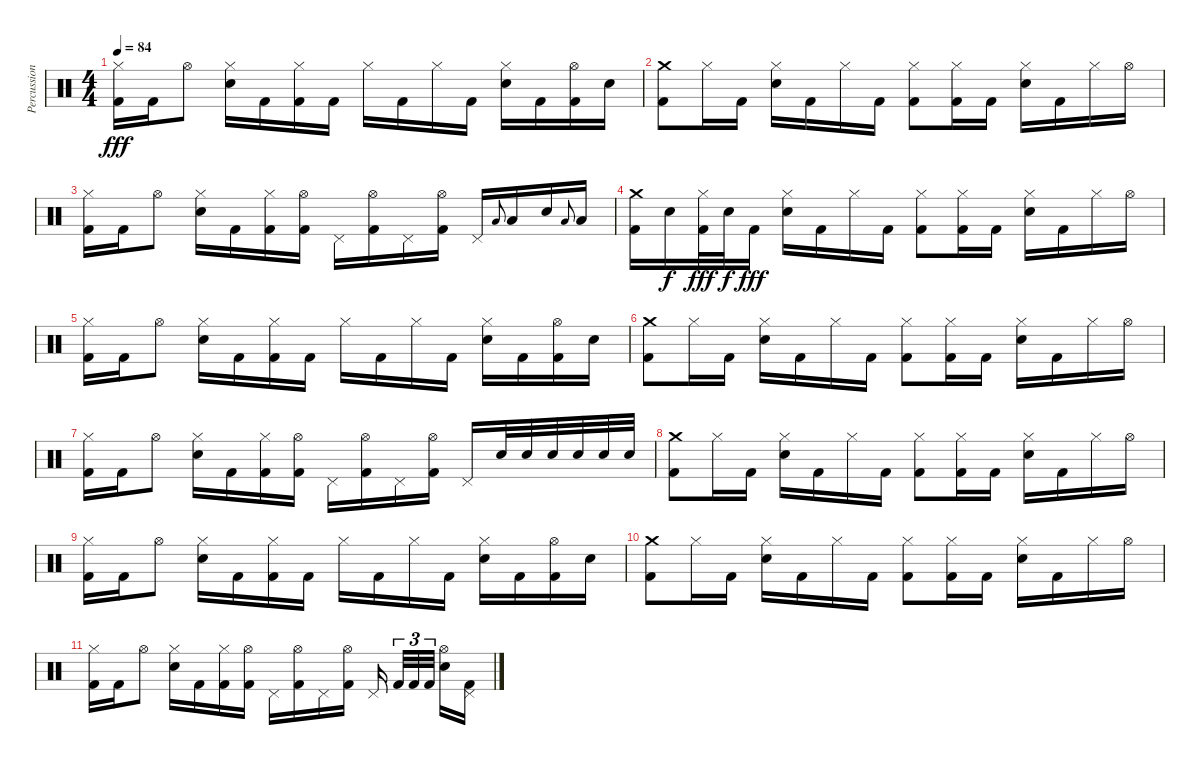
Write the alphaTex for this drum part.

\track ("Percussion" "Percussion") {instrument percussion}
\staff {score}
\articulation defaults
\ts (4 4)
\tempo 84
\clef neutral
\ks c
("Hi-Hat (closed)" "Kick (hit) 2").16{dy fff} "Kick (hit) 2".16 "Hi-Hat (open)".8 ("Hi-Hat (closed)" "Electric Snare (hit)").16 "Kick (hit) 2".16 ("Hi-Hat (closed)" "Kick (hit) 2").16 "Kick (hit) 2".16 "Hi-Hat (closed)".16 "Kick (hit) 2".16 "Hi-Hat (closed)".16 "Kick (hit) 2".16 ("Hi-Hat (closed)" "Electric Snare (hit)").16 "Kick (hit) 2".16 ("Hi-Hat (open)" "Kick (hit) 2").16 "Electric Snare (hit)".16 |
("Crash medium (hit)" "Kick (hit) 2").8 "Hi-Hat (closed)".16 "Kick (hit) 2".16 ("Hi-Hat (closed)" "Electric Snare (hit)").16 "Kick (hit) 2".16 "Hi-Hat (closed)".16 "Kick (hit) 2".16 ("Hi-Hat (closed)" "Kick (hit) 2").8 ("Hi-Hat (closed)" "Kick (hit) 2").16 "Kick (hit) 2".16 ("Hi-Hat (closed)" "Electric Snare (hit)").16 "Kick (hit) 2".16 "Hi-Hat (closed)".16 "Hi-Hat (open)".16 |
("Hi-Hat (closed)" "Kick (hit) 2").16 "Kick (hit) 2".16 "Hi-Hat (open)".8 ("Hi-Hat (closed)" "Electric Snare (hit)").16 "Kick (hit) 2".16 ("Hi-Hat (closed)" "Kick (hit) 2").16 ("Hi-Hat (open)" "Kick (hit) 2").16 "Pedal Hi-Hat (hit)".16 ("Hi-Hat (open)" "Kick (hit) 2").16 "Pedal Hi-Hat (hit)".16 ("Hi-Hat (open)" "Kick (hit) 2").16 "Pedal Hi-Hat (hit)".16 "Low Tom (hit)".8{gr onbeat} "Low Tom (hit)".16 "Electric Snare (hit)".16 "Low Tom (hit)".8{gr onbeat} "Low Tom (hit)".16 |
("Crash medium (hit)" "Kick (hit) 2").16 "Electric Snare (hit)".16{dy f} ("Hi-Hat (closed)" "Kick (hit) 2").32{dy fff} "Electric Snare (hit)".32{dy f} "Kick (hit) 2".16{dy fff} ("Hi-Hat (closed)" "Electric Snare (hit)").16 "Kick (hit) 2".16 "Hi-Hat (closed)".16 "Kick (hit) 2".16 ("Hi-Hat (closed)" "Kick (hit) 2").8 ("Hi-Hat (closed)" "Kick (hit) 2").16 "Kick (hit) 2".16 ("Hi-Hat (closed)" "Electric Snare (hit)").16 "Kick (hit) 2".16 "Hi-Hat (closed)".16 "Hi-Hat (open)".16 |
("Hi-Hat (closed)" "Kick (hit) 2").16 "Kick (hit) 2".16 "Hi-Hat (open)".8 ("Hi-Hat (closed)" "Electric Snare (hit)").16 "Kick (hit) 2".16 ("Hi-Hat (closed)" "Kick (hit) 2").16 "Kick (hit) 2".16 "Hi-Hat (closed)".16 "Kick (hit) 2".16 "Hi-Hat (closed)".16 "Kick (hit) 2".16 ("Hi-Hat (closed)" "Electric Snare (hit)").16 "Kick (hit) 2".16 ("Hi-Hat (open)" "Kick (hit) 2").16 "Electric Snare (hit)".16 |
("Crash medium (hit)" "Kick (hit) 2").8 "Hi-Hat (closed)".16 "Kick (hit) 2".16 ("Hi-Hat (closed)" "Electric Snare (hit)").16 "Kick (hit) 2".16 "Hi-Hat (closed)".16 "Kick (hit) 2".16 ("Hi-Hat (closed)" "Kick (hit) 2").8 ("Hi-Hat (closed)" "Kick (hit) 2").16 "Kick (hit) 2".16 ("Hi-Hat (closed)" "Electric Snare (hit)").16 "Kick (hit) 2".16 "Hi-Hat (closed)".16 "Hi-Hat (open)".16 |
("Hi-Hat (closed)" "Kick (hit) 2").16 "Kick (hit) 2".16 "Hi-Hat (open)".8 ("Hi-Hat (closed)" "Electric Snare (hit)").16 "Kick (hit) 2".16 ("Hi-Hat (closed)" "Kick (hit) 2").16 ("Hi-Hat (open)" "Kick (hit) 2").16 "Pedal Hi-Hat (hit)".16 ("Hi-Hat (open)" "Kick (hit) 2").16 "Pedal Hi-Hat (hit)".16 ("Hi-Hat (open)" "Kick (hit) 2").16 "Pedal Hi-Hat (hit)".16 "Electric Snare (hit)".32 "Electric Snare (hit)".32 "Electric Snare (hit)".32 "Electric Snare (hit)".32 "Electric Snare (hit)".32 "Electric Snare (hit)".32 |
("Crash medium (hit)" "Kick (hit) 2").8 "Hi-Hat (closed)".16 "Kick (hit) 2".16 ("Hi-Hat (closed)" "Electric Snare (hit)").16 "Kick (hit) 2".16 "Hi-Hat (closed)".16 "Kick (hit) 2".16 ("Hi-Hat (closed)" "Kick (hit) 2").8 ("Hi-Hat (closed)" "Kick (hit) 2").16 "Kick (hit) 2".16 ("Hi-Hat (closed)" "Electric Snare (hit)").16 "Kick (hit) 2".16 "Hi-Hat (closed)".16 "Hi-Hat (open)".16 |
("Hi-Hat (closed)" "Kick (hit) 2").16 "Kick (hit) 2".16 "Hi-Hat (open)".8 ("Hi-Hat (closed)" "Electric Snare (hit)").16 "Kick (hit) 2".16 ("Hi-Hat (closed)" "Kick (hit) 2").16 "Kick (hit) 2".16 "Hi-Hat (closed)".16 "Kick (hit) 2".16 "Hi-Hat (closed)".16 "Kick (hit) 2".16 ("Hi-Hat (closed)" "Electric Snare (hit)").16 "Kick (hit) 2".16 ("Hi-Hat (open)" "Kick (hit) 2").16 "Electric Snare (hit)".16 |
("Crash medium (hit)" "Kick (hit) 2").8 "Hi-Hat (closed)".16 "Kick (hit) 2".16 ("Hi-Hat (closed)" "Electric Snare (hit)").16 "Kick (hit) 2".16 "Hi-Hat (closed)".16 "Kick (hit) 2".16 ("Hi-Hat (closed)" "Kick (hit) 2").8 ("Hi-Hat (closed)" "Kick (hit) 2").16 "Kick (hit) 2".16 ("Hi-Hat (closed)" "Electric Snare (hit)").16 "Kick (hit) 2".16 "Hi-Hat (closed)".16 "Hi-Hat (open)".16 |
("Hi-Hat (closed)" "Kick (hit) 2").16 "Kick (hit) 2".16 "Hi-Hat (open)".8 ("Hi-Hat (closed)" "Electric Snare (hit)").16 "Kick (hit) 2".16 ("Hi-Hat (closed)" "Kick (hit) 2").16 ("Hi-Hat (open)" "Kick (hit) 2").16 "Pedal Hi-Hat (hit)".16 ("Hi-Hat (open)" "Kick (hit) 2").16 "Pedal Hi-Hat (hit)".16 ("Hi-Hat (open)" "Kick (hit) 2").16 "Pedal Hi-Hat (hit)".16{beam splitsecondary} "Kick (hit) 2".32{tu (3 2)} "Kick (hit) 2".32{tu (3 2)} "Kick (hit) 2".32{tu (3 2) beam splitsecondary} ("Hi-Hat (open)" "Electric Snare (hit)").16 ("Pedal Hi-Hat (hit)" "Kick (hit) 2").16
